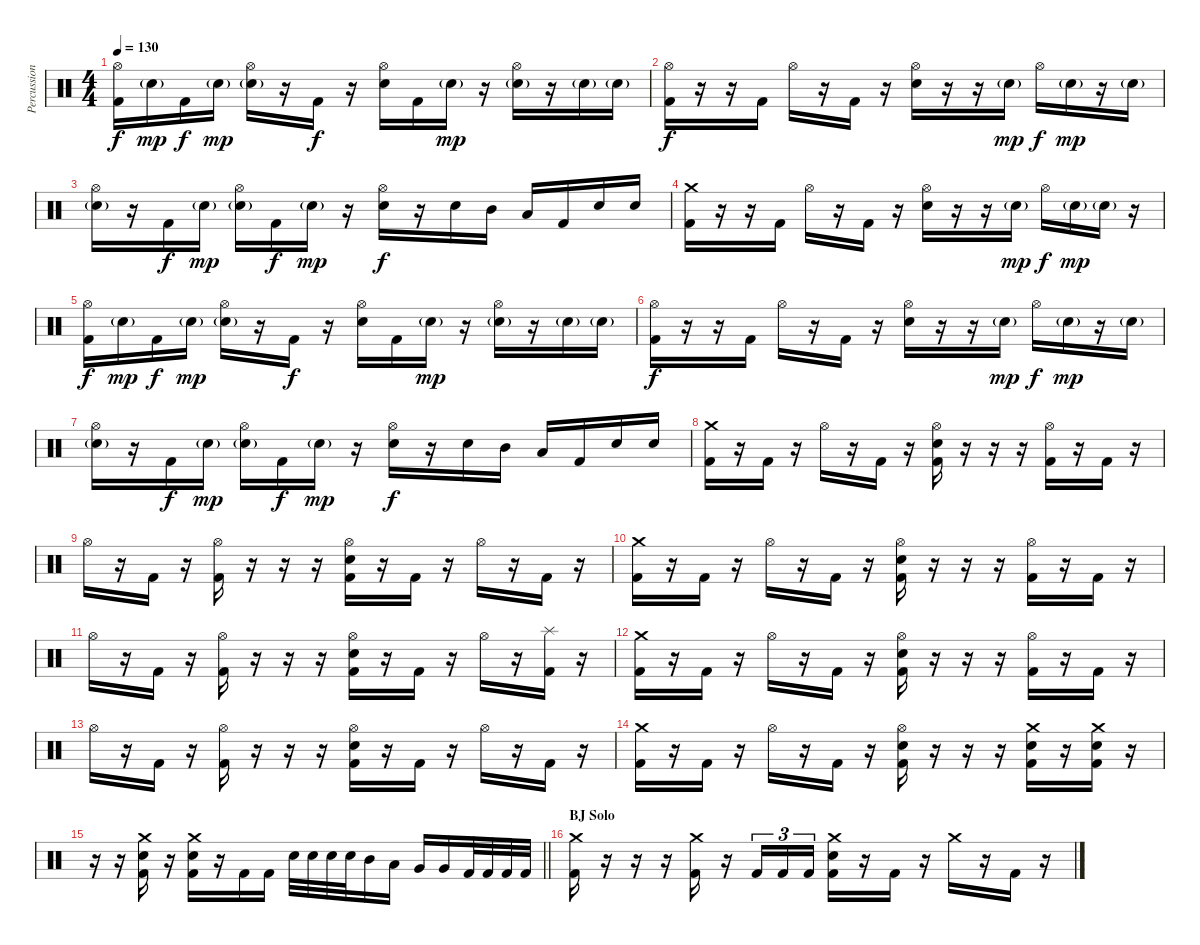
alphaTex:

\track ("Percussion" "Percussion") {instrument percussion}
\staff {score}
\articulation defaults
\ts (4 4)
\tempo 130
\clef neutral
\ks c
("Hi-Hat (open)" "Kick (hit) 2").16{dy f} "Snare (hit) 2"{g}.16{dy mp} "Kick (hit) 2".16{dy f} "Snare (hit) 2"{g}.16{dy mp} ("Hi-Hat (open)" "Snare (hit) 2"{g}).16 r.16 "Kick (hit) 2".16{dy f} r.16 ("Hi-Hat (open)" "Snare (hit) 2").16 "Kick (hit) 2".16 "Snare (hit) 2"{g}.16{dy mp} r.16 ("Hi-Hat (open)" "Snare (hit) 2"{g}).16 r.16 "Snare (hit) 2"{g}.16 "Snare (hit) 2"{g}.16 |
("Hi-Hat (open)" "Kick (hit) 2").16{dy f} r.16 r.16 "Kick (hit) 2".16 "Hi-Hat (open)".16 r.16 "Kick (hit) 2".16 r.16 ("Hi-Hat (open)" "Snare (hit) 2").16 r.16 r.16 "Snare (hit) 2"{g}.16{dy mp} "Hi-Hat (open)".16{dy f} "Snare (hit) 2"{g}.16{dy mp} r.16 "Snare (hit) 2"{g}.16 |
("Hi-Hat (open)" "Snare (hit) 2"{g}).16 r.16 "Kick (hit) 2".16{dy f} "Snare (hit) 2"{g}.16{dy mp} ("Hi-Hat (open)" "Snare (hit) 2"{g}).16 "Kick (hit) 2".16{dy f} "Snare (hit) 2"{g}.16{dy mp} r.16 ("Hi-Hat (open)" "Snare (hit) 2").16{dy f} r.16 "Snare (hit) 2".16 "Mid Tom (hit)".16 "Low Tom (hit)".16 "Kick (hit) 2".16 "Snare (hit) 2".16 "Snare (hit) 2".16 |
("Crash medium (hit)" "Kick (hit) 2").16 r.16 r.16 "Kick (hit) 2".16 "Hi-Hat (open)".16 r.16 "Kick (hit) 2".16 r.16 ("Hi-Hat (open)" "Snare (hit) 2").16 r.16 r.16 "Snare (hit) 2"{g}.16{dy mp} "Hi-Hat (open)".16{dy f} "Snare (hit) 2"{g}.16{dy mp} "Snare (hit) 2"{g}.16 r.16 |
("Hi-Hat (open)" "Kick (hit) 2").16{dy f} "Snare (hit) 2"{g}.16{dy mp} "Kick (hit) 2".16{dy f} "Snare (hit) 2"{g}.16{dy mp} ("Hi-Hat (open)" "Snare (hit) 2"{g}).16 r.16 "Kick (hit) 2".16{dy f} r.16 ("Hi-Hat (open)" "Snare (hit) 2").16 "Kick (hit) 2".16 "Snare (hit) 2"{g}.16{dy mp} r.16 ("Hi-Hat (open)" "Snare (hit) 2"{g}).16 r.16 "Snare (hit) 2"{g}.16 "Snare (hit) 2"{g}.16 |
("Hi-Hat (open)" "Kick (hit) 2").16{dy f} r.16 r.16 "Kick (hit) 2".16 "Hi-Hat (open)".16 r.16 "Kick (hit) 2".16 r.16 ("Hi-Hat (open)" "Snare (hit) 2").16 r.16 r.16 "Snare (hit) 2"{g}.16{dy mp} "Hi-Hat (open)".16{dy f} "Snare (hit) 2"{g}.16{dy mp} r.16 "Snare (hit) 2"{g}.16 |
("Hi-Hat (open)" "Snare (hit) 2"{g}).16 r.16 "Kick (hit) 2".16{dy f} "Snare (hit) 2"{g}.16{dy mp} ("Hi-Hat (open)" "Snare (hit) 2"{g}).16 "Kick (hit) 2".16{dy f} "Snare (hit) 2"{g}.16{dy mp} r.16 ("Hi-Hat (open)" "Snare (hit) 2").16{dy f} r.16 "Snare (hit) 2".16 "Mid Tom (hit)".16 "Low Tom (hit)".16 "Kick (hit) 2".16 "Snare (hit) 2".16 "Snare (hit) 2".16 |
("Crash medium (hit)" "Kick (hit) 2").16 r.16 "Kick (hit) 2".16 r.16 "Hi-Hat (open)".16 r.16 "Kick (hit) 2".16 r.16 ("Hi-Hat (open)" "Snare (hit) 2" "Kick (hit) 2").16 r.16 r.16 r.16 ("Hi-Hat (open)" "Kick (hit) 2").16 r.16 "Kick (hit) 2".16 r.16 |
"Hi-Hat (open)".16 r.16 "Kick (hit) 2".16 r.16 ("Hi-Hat (open)" "Kick (hit) 2").16 r.16 r.16 r.16 ("Hi-Hat (open)" "Snare (hit) 2" "Kick (hit) 2").16 r.16 "Kick (hit) 2".16 r.16 "Hi-Hat (open)".16 r.16 "Kick (hit) 2".16 r.16 |
("Crash medium (hit)" "Kick (hit) 2").16 r.16 "Kick (hit) 2".16 r.16 "Hi-Hat (open)".16 r.16 "Kick (hit) 2".16 r.16 ("Hi-Hat (open)" "Snare (hit) 2" "Kick (hit) 2").16 r.16 r.16 r.16 ("Hi-Hat (open)" "Kick (hit) 2").16 r.16 "Kick (hit) 2".16 r.16 |
"Hi-Hat (open)".16 r.16 "Kick (hit) 2".16 r.16 ("Hi-Hat (open)" "Kick (hit) 2").16 r.16 r.16 r.16 ("Hi-Hat (open)" "Snare (hit) 2" "Kick (hit) 2").16 r.16 "Kick (hit) 2".16 r.16 "Hi-Hat (open)".16 r.16 ("Splash (hit)" "Kick (hit) 2").16 r.16 |
("Crash medium (hit)" "Kick (hit) 2").16 r.16 "Kick (hit) 2".16 r.16 "Hi-Hat (open)".16 r.16 "Kick (hit) 2".16 r.16 ("Hi-Hat (open)" "Snare (hit) 2" "Kick (hit) 2").16 r.16 r.16 r.16 ("Hi-Hat (open)" "Kick (hit) 2").16 r.16 "Kick (hit) 2".16 r.16 |
"Hi-Hat (open)".16 r.16 "Kick (hit) 2".16 r.16 ("Hi-Hat (open)" "Kick (hit) 2").16 r.16 r.16 r.16 ("Hi-Hat (open)" "Snare (hit) 2" "Kick (hit) 2").16 r.16 "Kick (hit) 2".16 r.16 "Hi-Hat (open)".16 r.16 "Kick (hit) 2".16 r.16 |
("Crash medium (hit)" "Kick (hit) 2").16 r.16 "Kick (hit) 2".16 r.16 "Hi-Hat (open)".16 r.16 "Kick (hit) 2".16 r.16 ("Hi-Hat (open)" "Snare (hit) 2" "Kick (hit) 2").16 r.16 r.16 r.16 ("Crash medium (hit)" "Snare (hit) 2" "Kick (hit) 2").16 r.16 ("Crash medium (hit)" "Snare (hit) 2" "Kick (hit) 2").16 r.16 |
\barLineRight lightlight
r.16 r.16 ("Crash medium (hit)" "Snare (hit) 2" "Kick (hit) 2").16 r.16 ("Crash medium (hit)" "Snare (hit) 2" "Kick (hit) 2").16 r.16 "Kick (hit) 2".16 "Kick (hit) 2".16 "Snare (hit) 2".32 "Snare (hit) 2".32 "Snare (hit) 2".32 "Snare (hit) 2".32 "Mid Tom (hit)".16 "Low Tom (hit)".16 "Very Low Tom (hit)".16 "Very Low Tom (hit)".16 "Kick (hit) 2".32 "Kick (hit) 2".32 "Kick (hit) 2".32 "Kick (hit) 2".32 |
\section ("" "BJ Solo")
("Crash medium (hit)" "Kick (hit) 2").16 r.16 r.16 r.16 ("Crash medium (hit)" "Kick (hit) 2").16 r.16 "Kick (hit) 2".16{tu (3 2)} "Kick (hit) 2".16{tu (3 2)} "Kick (hit) 2".16{tu (3 2)} ("Crash medium (hit)" "Snare (hit) 2" "Kick (hit) 2").16 r.16 "Kick (hit) 2".16 r.16 "Crash medium (hit)".16 r.16 "Kick (hit) 2".16 r.16
